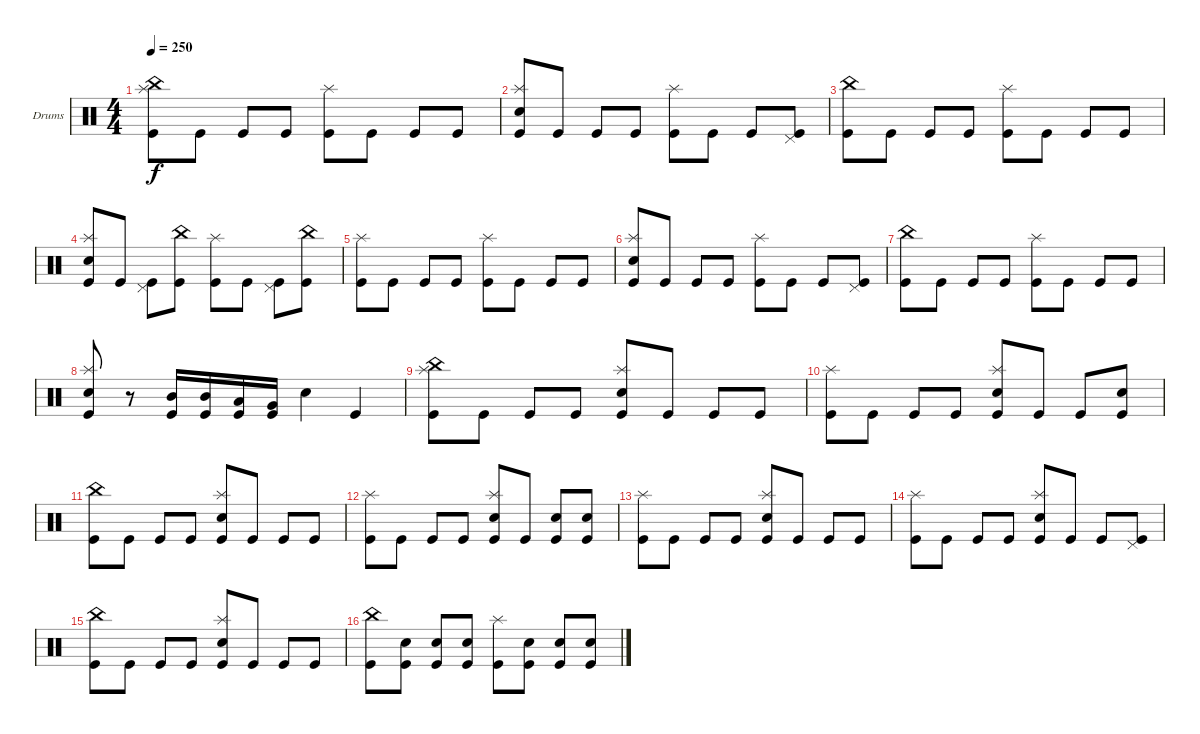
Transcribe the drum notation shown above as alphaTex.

\defaultSystemsLayout 4
\bracketExtendMode groupsimilarinstruments
\firstSystemTrackNameOrientation horizontal
\otherSystemsTrackNameOrientation horizontal
\track ("Drumkit" "Drums") {instrument percussion}
\staff {score}
\articulation defaults
\ts (4 4)
\tempo 250
\clef neutral
\ks c
("Kick (hit)" "Splash (hit)" "China (hit)").8{dy f} "Kick (hit)".8 "Kick (hit)".8 "Kick (hit)".8 ("Kick (hit)" "Splash (hit)").8 "Kick (hit)".8 "Kick (hit)".8 "Kick (hit)".8 |
("Kick (hit)" "Splash (hit)" "Snare (hit) 2").8 "Kick (hit)".8 "Kick (hit)".8 "Kick (hit)".8 ("Kick (hit)" "Splash (hit)").8 "Kick (hit)".8 "Kick (hit)".8 ("Kick (hit)" "Pedal Hi-Hat (hit)").8 |
("Kick (hit)" "China (hit)").8 "Kick (hit)".8 "Kick (hit)".8 "Kick (hit)".8 ("Kick (hit)" "Splash (hit)").8 "Kick (hit)".8 "Kick (hit)".8 "Kick (hit)".8 |
("Kick (hit)" "Splash (hit)" "Snare (hit) 2").8 "Kick (hit)".8 ("Kick (hit)" "Pedal Hi-Hat (hit)").8 ("Kick (hit)" "China (hit)").8 ("Kick (hit)" "Splash (hit)").8 "Kick (hit)".8 ("Kick (hit)" "Pedal Hi-Hat (hit)").8 ("Kick (hit)" "China (hit)").8 |
("Kick (hit)" "Splash (hit)").8 "Kick (hit)".8 "Kick (hit)".8 "Kick (hit)".8 ("Kick (hit)" "Splash (hit)").8 "Kick (hit)".8 "Kick (hit)".8 "Kick (hit)".8 |
("Kick (hit)" "Splash (hit)" "Snare (hit) 2").8 "Kick (hit)".8 "Kick (hit)".8 "Kick (hit)".8 ("Kick (hit)" "Splash (hit)").8 "Kick (hit)".8 "Kick (hit)".8 ("Kick (hit)" "Pedal Hi-Hat (hit)").8 |
("Kick (hit)" "China (hit)").8 "Kick (hit)".8 "Kick (hit)".8 "Kick (hit)".8 ("Kick (hit)" "Splash (hit)").8 "Kick (hit)".8 "Kick (hit)".8 "Kick (hit)".8 |
("Kick (hit)" "Splash (hit)" "Snare (hit) 2").8 r.8 ("Kick (hit)" "Mid Tom (hit)").16 ("Kick (hit)" "Mid Tom (hit)").16 ("Kick (hit)" "Low Tom (hit)").16 ("Kick (hit)" "Very Low Tom (hit)").16 "Snare (hit) 2".4 "Kick (hit)".4 |
("Kick (hit)" "Splash (hit)" "China (hit)").8 "Kick (hit)".8 "Kick (hit)".8 "Kick (hit)".8 ("Kick (hit)" "Splash (hit)" "Snare (hit) 2").8 "Kick (hit)".8 "Kick (hit)".8 "Kick (hit)".8 |
("Kick (hit)" "Splash (hit)").8 "Kick (hit)".8 "Kick (hit)".8 "Kick (hit)".8 ("Kick (hit)" "Splash (hit)" "Snare (hit) 2").8 "Kick (hit)".8 "Kick (hit)".8 ("Kick (hit)" "Snare (hit) 2").8 |
("Kick (hit)" "China (hit)").8 "Kick (hit)".8 "Kick (hit)".8 "Kick (hit)".8 ("Kick (hit)" "Splash (hit)" "Snare (hit) 2").8 "Kick (hit)".8 "Kick (hit)".8 "Kick (hit)".8 |
("Kick (hit)" "Splash (hit)").8 "Kick (hit)".8 "Kick (hit)".8 "Kick (hit)".8 ("Kick (hit)" "Splash (hit)" "Snare (hit) 2").8 "Kick (hit)".8 ("Kick (hit)" "Snare (hit) 2").8 ("Kick (hit)" "Snare (hit) 2").8 |
("Kick (hit)" "Splash (hit)").8 "Kick (hit)".8 "Kick (hit)".8 "Kick (hit)".8 ("Kick (hit)" "Splash (hit)" "Snare (hit) 2").8 "Kick (hit)".8 "Kick (hit)".8 "Kick (hit)".8 |
("Kick (hit)" "Splash (hit)").8 "Kick (hit)".8 "Kick (hit)".8 "Kick (hit)".8 ("Kick (hit)" "Splash (hit)" "Snare (hit) 2").8 "Kick (hit)".8 "Kick (hit)".8 ("Kick (hit)" "Pedal Hi-Hat (hit)").8 |
("Kick (hit)" "China (hit)").8 "Kick (hit)".8 "Kick (hit)".8 "Kick (hit)".8 ("Kick (hit)" "Splash (hit)" "Snare (hit) 2").8 "Kick (hit)".8 "Kick (hit)".8 "Kick (hit)".8 |
("Kick (hit)" "China (hit)").8 ("Kick (hit)" "Snare (hit) 2").8 ("Kick (hit)" "Snare (hit) 2").8 ("Kick (hit)" "Snare (hit) 2").8 ("Kick (hit)" "Splash (hit)").8 ("Kick (hit)" "Snare (hit) 2").8 ("Kick (hit)" "Snare (hit) 2").8 ("Kick (hit)" "Snare (hit) 2").8
